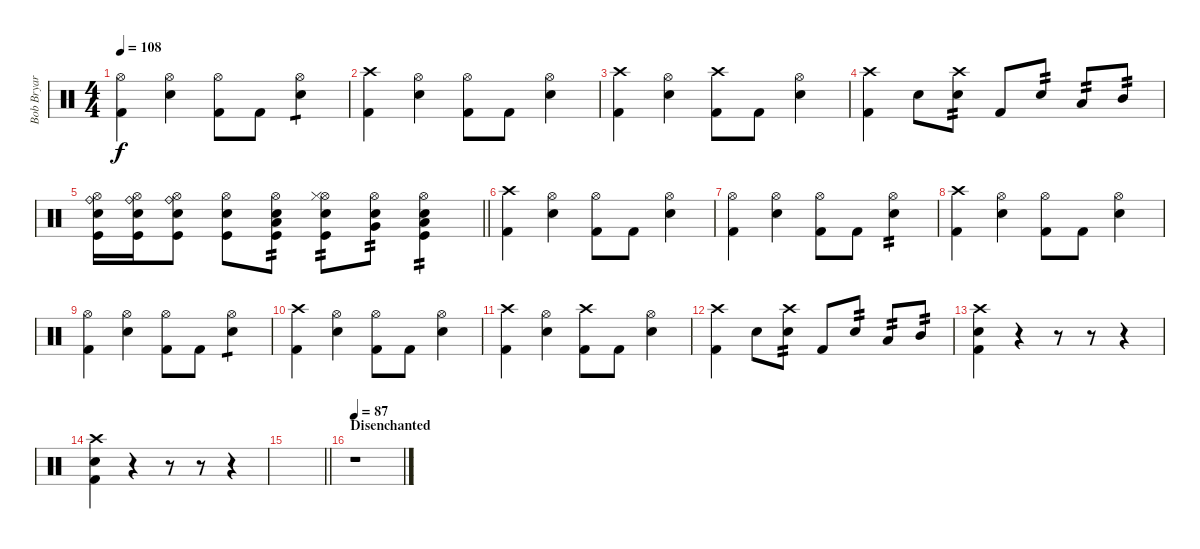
\track ("Bob Bryar [Drums]" "Bob Bryar ") {instrument percussion}
\staff {score}
\articulation defaults
\ts (4 4)
\tempo 108
\clef neutral
\ks c
("Hi-Hat (open)" "Kick (hit) 2").4{dy f} ("Hi-Hat (open)" "Electric Snare (hit)").4 ("Hi-Hat (open)" "Kick (hit) 2").8 "Kick (hit) 2".8 ("Hi-Hat (open)" "Electric Snare (hit)").4{tp 1} |
("Crash high (hit)" "Kick (hit) 2").4 ("Hi-Hat (open)" "Electric Snare (hit)").4 ("Hi-Hat (open)" "Kick (hit) 2").8 "Kick (hit) 2".8 ("Hi-Hat (open)" "Electric Snare (hit)").4 |
("Crash high (hit)" "Kick (hit) 2").4 ("Hi-Hat (open)" "Electric Snare (hit)").4 ("Crash high (hit)" "Kick (hit) 2").8 "Kick (hit) 2".8 ("Hi-Hat (open)" "Electric Snare (hit)").4 |
("Crash high (hit)" "Kick (hit) 2").4 "Electric Snare (hit)".8 ("Crash high (hit)" "Electric Snare (hit)").8{tp 2} "Kick (hit) 2".8 "Electric Snare (hit)".8{tp 2} "Low Tom (hit)".8{tp 2} "Mid Tom (hit)".8{tp 2} |
\barLineRight lightlight
("Hi-Hat (open)" "Snare (hit) 2" "Ride (bell)" "Kick (hit)").16 ("Hi-Hat (open)" "Snare (hit) 2" "Ride (bell)" "Kick (hit)").16 ("Hi-Hat (open)" "Snare (hit) 2" "Ride (bell)" "Kick (hit)").8 ("Hi-Hat (open)" "Snare (hit) 2" "Kick (hit)").8 ("Hi-Hat (open)" "Snare (hit) 2" "Low Floor Tom (hit)" "Kick (hit)").8{tp 2} ("Hi-Hat (open)" "Snare (hit) 2" "Hi-Hat (closed)" "Kick (hit)").8{tp 2} ("Hi-Hat (open)" "Snare (hit) 2" "Very Low Tom (hit)").8{tp 2} ("Hi-Hat (open)" "Snare (hit) 2" "Low Tom (hit)" "Kick (hit)").4{tp 2} |
("Crash high (hit)" "Kick (hit) 2").4 ("Hi-Hat (open)" "Electric Snare (hit)").4 ("Hi-Hat (open)" "Kick (hit) 2").8 "Kick (hit) 2".8 ("Hi-Hat (open)" "Electric Snare (hit)").4 |
("Hi-Hat (open)" "Kick (hit) 2").4 ("Hi-Hat (open)" "Electric Snare (hit)").4 ("Hi-Hat (open)" "Kick (hit) 2").8 "Kick (hit) 2".8 ("Hi-Hat (open)" "Electric Snare (hit)").4{tp 2} |
("Crash high (hit)" "Kick (hit) 2").4 ("Hi-Hat (open)" "Electric Snare (hit)").4 ("Hi-Hat (open)" "Kick (hit) 2").8 "Kick (hit) 2".8 ("Hi-Hat (open)" "Electric Snare (hit)").4 |
("Hi-Hat (open)" "Kick (hit) 2").4 ("Hi-Hat (open)" "Electric Snare (hit)").4 ("Hi-Hat (open)" "Kick (hit) 2").8 "Kick (hit) 2".8 ("Hi-Hat (open)" "Electric Snare (hit)").4{tp 1} |
("Crash high (hit)" "Kick (hit) 2").4 ("Hi-Hat (open)" "Electric Snare (hit)").4 ("Hi-Hat (open)" "Kick (hit) 2").8 "Kick (hit) 2".8 ("Hi-Hat (open)" "Electric Snare (hit)").4 |
("Crash high (hit)" "Kick (hit) 2").4 ("Hi-Hat (open)" "Electric Snare (hit)").4 ("Crash high (hit)" "Kick (hit) 2").8 "Kick (hit) 2".8 ("Hi-Hat (open)" "Electric Snare (hit)").4 |
("Crash high (hit)" "Kick (hit) 2").4 "Electric Snare (hit)".8 ("Crash high (hit)" "Electric Snare (hit)").8{tp 2} "Kick (hit) 2".8 "Electric Snare (hit)".8{tp 2} "Low Tom (hit)".8{tp 2} "Mid Tom (hit)".8{tp 2} |
("Crash high (hit)" "Electric Snare (hit)" "Kick (hit) 2").4 r.4 r.8 r.8 r.4 |
("Crash high (hit)" "Electric Snare (hit)" "Kick (hit) 2").4 r.4 r.8 r.8 r.4 |
\barLineRight lightlight
|
\section ("" "Disenchanted")
\tempo 87
r.1
